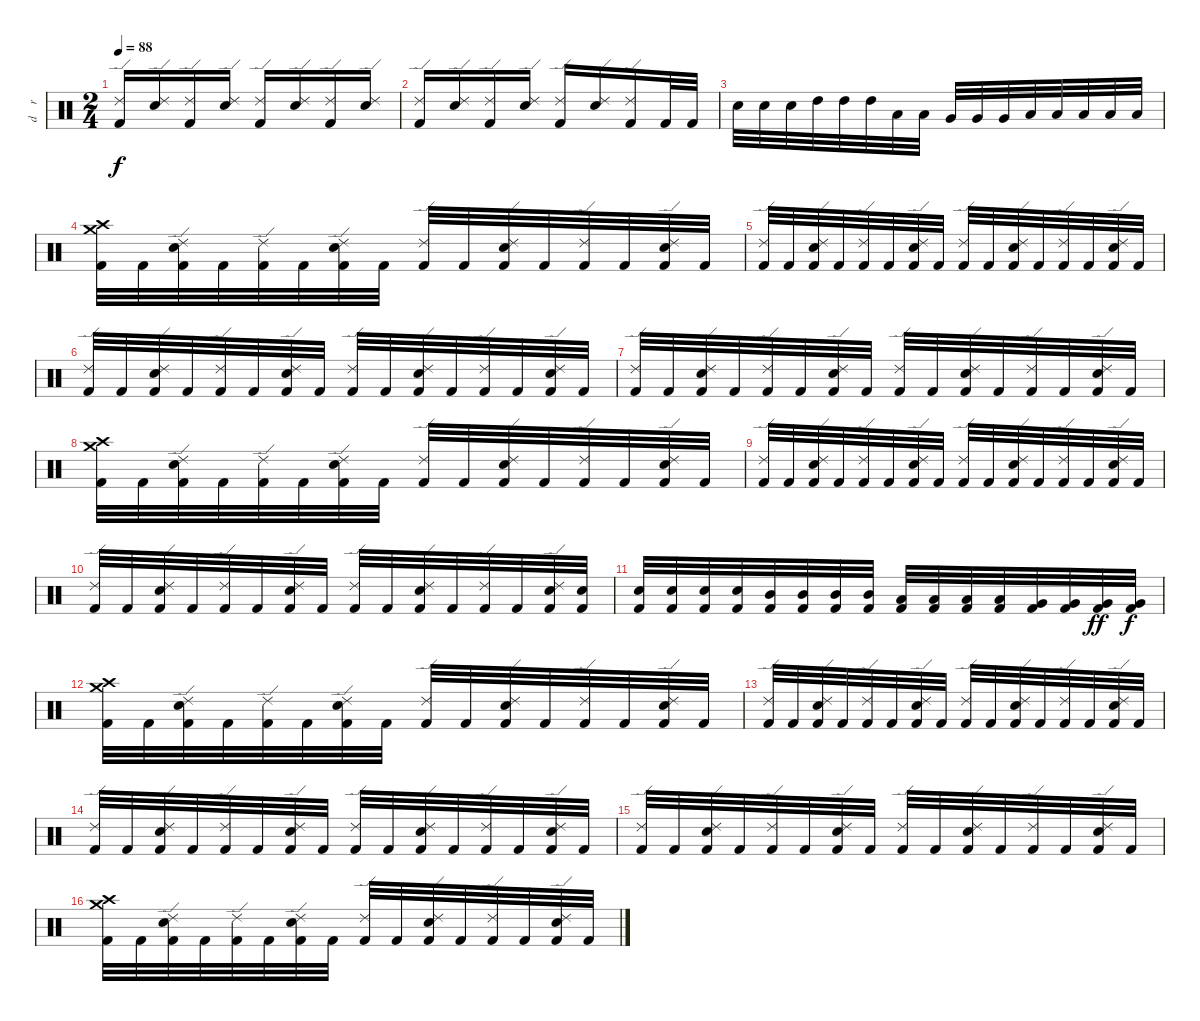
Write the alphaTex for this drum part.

\track ("d    r     u    m    s" "d    r    ") {instrument percussion}
\staff {score}
\articulation defaults
\ts (2 4)
\tempo 88
\clef neutral
\ks c
("Ride (edge) 2" "Kick (hit) 2").16{dy f} ("Ride (edge) 2" "Electric Snare (hit)").16 ("Ride (edge) 2" "Kick (hit) 2").16 ("Ride (edge) 2" "Electric Snare (hit)").16 ("Ride (edge) 2" "Kick (hit) 2").16 ("Ride (edge) 2" "Electric Snare (hit)").16 ("Ride (edge) 2" "Kick (hit) 2").16 ("Ride (edge) 2" "Electric Snare (hit)").16 |
("Ride (edge) 2" "Kick (hit) 2").16 ("Ride (edge) 2" "Electric Snare (hit)").16 ("Ride (edge) 2" "Kick (hit) 2").16 ("Ride (edge) 2" "Electric Snare (hit)").16 ("Ride (edge) 2" "Kick (hit) 2").16 ("Ride (edge) 2" "Electric Snare (hit)").16 ("Ride (edge) 2" "Kick (hit) 2").16 "Kick (hit) 2".32 "Kick (hit) 2".32 |
"Electric Snare (hit)".32 "Electric Snare (hit)".32 "Electric Snare (hit)".32 "High Tom (hit)".32 "High Tom (hit)".32 "High Tom (hit)".32 "Low Tom (hit)".32 "Low Tom (hit)".32 "Very Low Tom (hit)".32 "Very Low Tom (hit)".32 "Very Low Tom (hit)".32 "Low Floor Tom (hit)".32 "Low Floor Tom (hit)".32 "Low Floor Tom (hit)".32 "Low Floor Tom (hit)".32 "Low Floor Tom (hit)".32 |
("Crash high (hit)" "Crash medium (hit)" "Kick (hit) 2").32 "Kick (hit) 2".32 ("Ride (edge) 2" "Electric Snare (hit)" "Kick (hit) 2").32 "Kick (hit) 2".32 ("Ride (edge) 2" "Kick (hit) 2").32 "Kick (hit) 2".32 ("Ride (edge) 2" "Electric Snare (hit)" "Kick (hit) 2").32 "Kick (hit) 2".32 ("Ride (edge) 2" "Kick (hit) 2").32 "Kick (hit) 2".32 ("Ride (edge) 2" "Electric Snare (hit)" "Kick (hit) 2").32 "Kick (hit) 2".32 ("Ride (edge) 2" "Kick (hit) 2").32 "Kick (hit) 2".32 ("Ride (edge) 2" "Electric Snare (hit)" "Kick (hit) 2").32 "Kick (hit) 2".32 |
("Ride (edge) 2" "Kick (hit) 2").32 "Kick (hit) 2".32 ("Ride (edge) 2" "Electric Snare (hit)" "Kick (hit) 2").32 "Kick (hit) 2".32 ("Ride (edge) 2" "Kick (hit) 2").32 "Kick (hit) 2".32 ("Ride (edge) 2" "Electric Snare (hit)" "Kick (hit) 2").32 "Kick (hit) 2".32 ("Ride (edge) 2" "Kick (hit) 2").32 "Kick (hit) 2".32 ("Ride (edge) 2" "Electric Snare (hit)" "Kick (hit) 2").32 "Kick (hit) 2".32 ("Ride (edge) 2" "Kick (hit) 2").32 "Kick (hit) 2".32 ("Ride (edge) 2" "Electric Snare (hit)" "Kick (hit) 2").32 "Kick (hit) 2".32 |
("Ride (edge) 2" "Kick (hit) 2").32 "Kick (hit) 2".32 ("Ride (edge) 2" "Electric Snare (hit)" "Kick (hit) 2").32 "Kick (hit) 2".32 ("Ride (edge) 2" "Kick (hit) 2").32 "Kick (hit) 2".32 ("Ride (edge) 2" "Electric Snare (hit)" "Kick (hit) 2").32 "Kick (hit) 2".32 ("Ride (edge) 2" "Kick (hit) 2").32 "Kick (hit) 2".32 ("Ride (edge) 2" "Electric Snare (hit)" "Kick (hit) 2").32 "Kick (hit) 2".32 ("Ride (edge) 2" "Kick (hit) 2").32 "Kick (hit) 2".32 ("Ride (edge) 2" "Electric Snare (hit)" "Kick (hit) 2").32 "Kick (hit) 2".32 |
("Ride (edge) 2" "Kick (hit) 2").32 "Kick (hit) 2".32 ("Ride (edge) 2" "Electric Snare (hit)" "Kick (hit) 2").32 "Kick (hit) 2".32 ("Ride (edge) 2" "Kick (hit) 2").32 "Kick (hit) 2".32 ("Ride (edge) 2" "Electric Snare (hit)" "Kick (hit) 2").32 "Kick (hit) 2".32 ("Ride (edge) 2" "Kick (hit) 2").32 "Kick (hit) 2".32 ("Ride (edge) 2" "Electric Snare (hit)" "Kick (hit) 2").32 "Kick (hit) 2".32 ("Ride (edge) 2" "Kick (hit) 2").32 "Kick (hit) 2".32 ("Ride (edge) 2" "Electric Snare (hit)" "Kick (hit) 2").32 "Kick (hit) 2".32 |
("Crash high (hit)" "Crash medium (hit)" "Kick (hit) 2").32 "Kick (hit) 2".32 ("Ride (edge) 2" "Electric Snare (hit)" "Kick (hit) 2").32 "Kick (hit) 2".32 ("Ride (edge) 2" "Kick (hit) 2").32 "Kick (hit) 2".32 ("Ride (edge) 2" "Electric Snare (hit)" "Kick (hit) 2").32 "Kick (hit) 2".32 ("Ride (edge) 2" "Kick (hit) 2").32 "Kick (hit) 2".32 ("Ride (edge) 2" "Electric Snare (hit)" "Kick (hit) 2").32 "Kick (hit) 2".32 ("Ride (edge) 2" "Kick (hit) 2").32 "Kick (hit) 2".32 ("Ride (edge) 2" "Electric Snare (hit)" "Kick (hit) 2").32 "Kick (hit) 2".32 |
("Ride (edge) 2" "Kick (hit) 2").32 "Kick (hit) 2".32 ("Ride (edge) 2" "Electric Snare (hit)" "Kick (hit) 2").32 "Kick (hit) 2".32 ("Ride (edge) 2" "Kick (hit) 2").32 "Kick (hit) 2".32 ("Ride (edge) 2" "Electric Snare (hit)" "Kick (hit) 2").32 "Kick (hit) 2".32 ("Ride (edge) 2" "Kick (hit) 2").32 "Kick (hit) 2".32 ("Ride (edge) 2" "Electric Snare (hit)" "Kick (hit) 2").32 "Kick (hit) 2".32 ("Ride (edge) 2" "Kick (hit) 2").32 "Kick (hit) 2".32 ("Ride (edge) 2" "Electric Snare (hit)" "Kick (hit) 2").32 "Kick (hit) 2".32 |
("Ride (edge) 2" "Kick (hit) 2").32 "Kick (hit) 2".32 ("Ride (edge) 2" "Electric Snare (hit)" "Kick (hit) 2").32 "Kick (hit) 2".32 ("Ride (edge) 2" "Kick (hit) 2").32 "Kick (hit) 2".32 ("Ride (edge) 2" "Electric Snare (hit)" "Kick (hit) 2").32 "Kick (hit) 2".32 ("Ride (edge) 2" "Kick (hit) 2").32 "Kick (hit) 2".32 ("Ride (edge) 2" "Electric Snare (hit)" "Kick (hit) 2").32 "Kick (hit) 2".32 ("Ride (edge) 2" "Kick (hit) 2").32 "Kick (hit) 2".32 ("Ride (edge) 2" "Electric Snare (hit)" "Kick (hit) 2").32 ("Electric Snare (hit)" "Kick (hit) 2").32 |
("Electric Snare (hit)" "Kick (hit) 2").32 ("Electric Snare (hit)" "Kick (hit) 2").32 ("Electric Snare (hit)" "Kick (hit) 2").32 ("Electric Snare (hit)" "Kick (hit) 2").32 ("Mid Tom (hit)" "Kick (hit) 2").32 ("Mid Tom (hit)" "Kick (hit) 2").32 ("Mid Tom (hit)" "Kick (hit) 2").32 ("Mid Tom (hit)" "Kick (hit) 2").32 ("Low Tom (hit)" "Kick (hit) 2").32 ("Low Tom (hit)" "Kick (hit) 2").32 ("Low Tom (hit)" "Kick (hit) 2").32 ("Low Tom (hit)" "Kick (hit) 2").32 ("Very Low Tom (hit)" "Kick (hit) 2").32 ("Very Low Tom (hit)" "Kick (hit) 2").32 ("Very Low Tom (hit)" "Kick (hit) 2").32{dy ff} ("Very Low Tom (hit)" "Kick (hit) 2").32{dy f} |
("Crash high (hit)" "Crash medium (hit)" "Kick (hit) 2").32 "Kick (hit) 2".32 ("Ride (edge) 2" "Electric Snare (hit)" "Kick (hit) 2").32 "Kick (hit) 2".32 ("Ride (edge) 2" "Kick (hit) 2").32 "Kick (hit) 2".32 ("Ride (edge) 2" "Electric Snare (hit)" "Kick (hit) 2").32 "Kick (hit) 2".32 ("Ride (edge) 2" "Kick (hit) 2").32 "Kick (hit) 2".32 ("Ride (edge) 2" "Electric Snare (hit)" "Kick (hit) 2").32 "Kick (hit) 2".32 ("Ride (edge) 2" "Kick (hit) 2").32 "Kick (hit) 2".32 ("Ride (edge) 2" "Electric Snare (hit)" "Kick (hit) 2").32 "Kick (hit) 2".32 |
("Ride (edge) 2" "Kick (hit) 2").32 "Kick (hit) 2".32 ("Ride (edge) 2" "Electric Snare (hit)" "Kick (hit) 2").32 "Kick (hit) 2".32 ("Ride (edge) 2" "Kick (hit) 2").32 "Kick (hit) 2".32 ("Ride (edge) 2" "Electric Snare (hit)" "Kick (hit) 2").32 "Kick (hit) 2".32 ("Ride (edge) 2" "Kick (hit) 2").32 "Kick (hit) 2".32 ("Ride (edge) 2" "Electric Snare (hit)" "Kick (hit) 2").32 "Kick (hit) 2".32 ("Ride (edge) 2" "Kick (hit) 2").32 "Kick (hit) 2".32 ("Ride (edge) 2" "Electric Snare (hit)" "Kick (hit) 2").32 "Kick (hit) 2".32 |
("Ride (edge) 2" "Kick (hit) 2").32 "Kick (hit) 2".32 ("Ride (edge) 2" "Electric Snare (hit)" "Kick (hit) 2").32 "Kick (hit) 2".32 ("Ride (edge) 2" "Kick (hit) 2").32 "Kick (hit) 2".32 ("Ride (edge) 2" "Electric Snare (hit)" "Kick (hit) 2").32 "Kick (hit) 2".32 ("Ride (edge) 2" "Kick (hit) 2").32 "Kick (hit) 2".32 ("Ride (edge) 2" "Electric Snare (hit)" "Kick (hit) 2").32 "Kick (hit) 2".32 ("Ride (edge) 2" "Kick (hit) 2").32 "Kick (hit) 2".32 ("Ride (edge) 2" "Electric Snare (hit)" "Kick (hit) 2").32 "Kick (hit) 2".32 |
("Ride (edge) 2" "Kick (hit) 2").32 "Kick (hit) 2".32 ("Ride (edge) 2" "Electric Snare (hit)" "Kick (hit) 2").32 "Kick (hit) 2".32 ("Ride (edge) 2" "Kick (hit) 2").32 "Kick (hit) 2".32 ("Ride (edge) 2" "Electric Snare (hit)" "Kick (hit) 2").32 "Kick (hit) 2".32 ("Ride (edge) 2" "Kick (hit) 2").32 "Kick (hit) 2".32 ("Ride (edge) 2" "Electric Snare (hit)" "Kick (hit) 2").32 "Kick (hit) 2".32 ("Ride (edge) 2" "Kick (hit) 2").32 "Kick (hit) 2".32 ("Ride (edge) 2" "Electric Snare (hit)" "Kick (hit) 2").32 "Kick (hit) 2".32 |
("Crash high (hit)" "Crash medium (hit)" "Kick (hit) 2").32 "Kick (hit) 2".32 ("Ride (edge) 2" "Electric Snare (hit)" "Kick (hit) 2").32 "Kick (hit) 2".32 ("Ride (edge) 2" "Kick (hit) 2").32 "Kick (hit) 2".32 ("Ride (edge) 2" "Electric Snare (hit)" "Kick (hit) 2").32 "Kick (hit) 2".32 ("Ride (edge) 2" "Kick (hit) 2").32 "Kick (hit) 2".32 ("Ride (edge) 2" "Electric Snare (hit)" "Kick (hit) 2").32 "Kick (hit) 2".32 ("Ride (edge) 2" "Kick (hit) 2").32 "Kick (hit) 2".32 ("Ride (edge) 2" "Electric Snare (hit)" "Kick (hit) 2").32 "Kick (hit) 2".32
